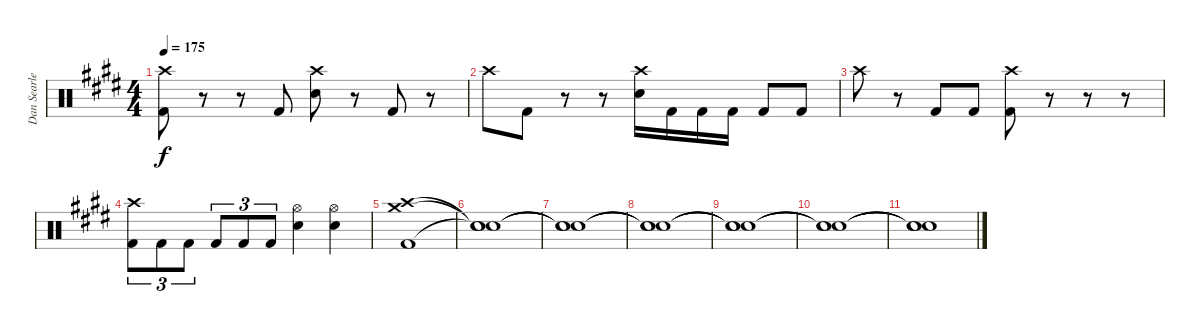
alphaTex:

\track ("Dan Searle" "Dan Searle") {instrument percussion}
\staff {score}
\articulation defaults
\ts (4 4)
\tempo 175
\clef neutral
\ks e
("Crash high (hit)" "Kick (hit) 2").8{dy f} r.8 r.8 "Kick (hit) 2".8 ("Crash high (hit)" "Snare (hit) 2").8 r.8 "Kick (hit) 2".8 r.8 |
"Crash high (hit)".8 "Kick (hit) 2".8 r.8 r.8 ("Crash high (hit)" "Snare (hit) 2").16 "Kick (hit) 2".16 "Kick (hit) 2".16 "Kick (hit) 2".16 "Kick (hit) 2".8 "Kick (hit) 2".8 |
"Crash high (hit)".8 r.8 "Kick (hit) 2".8 "Kick (hit) 2".8 ("Crash high (hit)" "Kick (hit) 2").8 r.8 r.8 r.8 |
("Crash high (hit)" "Kick (hit) 2").8{tu (3 2)} "Kick (hit) 2".8{tu (3 2)} "Kick (hit) 2".8{tu (3 2)} "Kick (hit) 2".8{tu (3 2)} "Kick (hit) 2".8{tu (3 2)} "Kick (hit) 2".8{tu (3 2)} ("Hi-Hat (open)" "Snare (hit) 2").4 ("Hi-Hat (open)" "Snare (hit) 2").4 |
("Crash medium (hit)" "Crash high (hit)" "Kick (hit) 2").1 |
("Snare (hit)"{t} "Snare (hit)"{t} "Snare (hit)"{t}).1 |
("Snare (hit)"{t} "Snare (hit)"{t} "Snare (hit)"{t}).1 |
("Snare (hit)"{t} "Snare (hit)"{t} "Snare (hit)"{t}).1 |
("Snare (hit)"{t} "Snare (hit)"{t} "Snare (hit)"{t}).1 |
("Snare (hit)"{t} "Snare (hit)"{t} "Snare (hit)"{t}).1 |
("Snare (hit)"{t} "Snare (hit)"{t} "Snare (hit)"{t}).1
